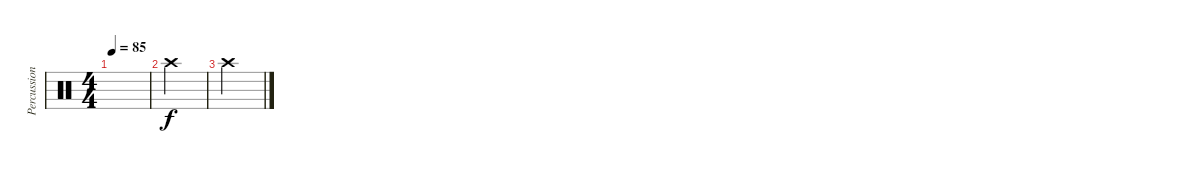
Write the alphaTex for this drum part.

\track ("Percussions" "Percussion") {instrument percussion}
\staff {score}
\articulation defaults
\ts (4 4)
\tempo 85
\clef neutral
\ks c
|
"Crash high (hit)".4 |
"Crash high (hit)".4
